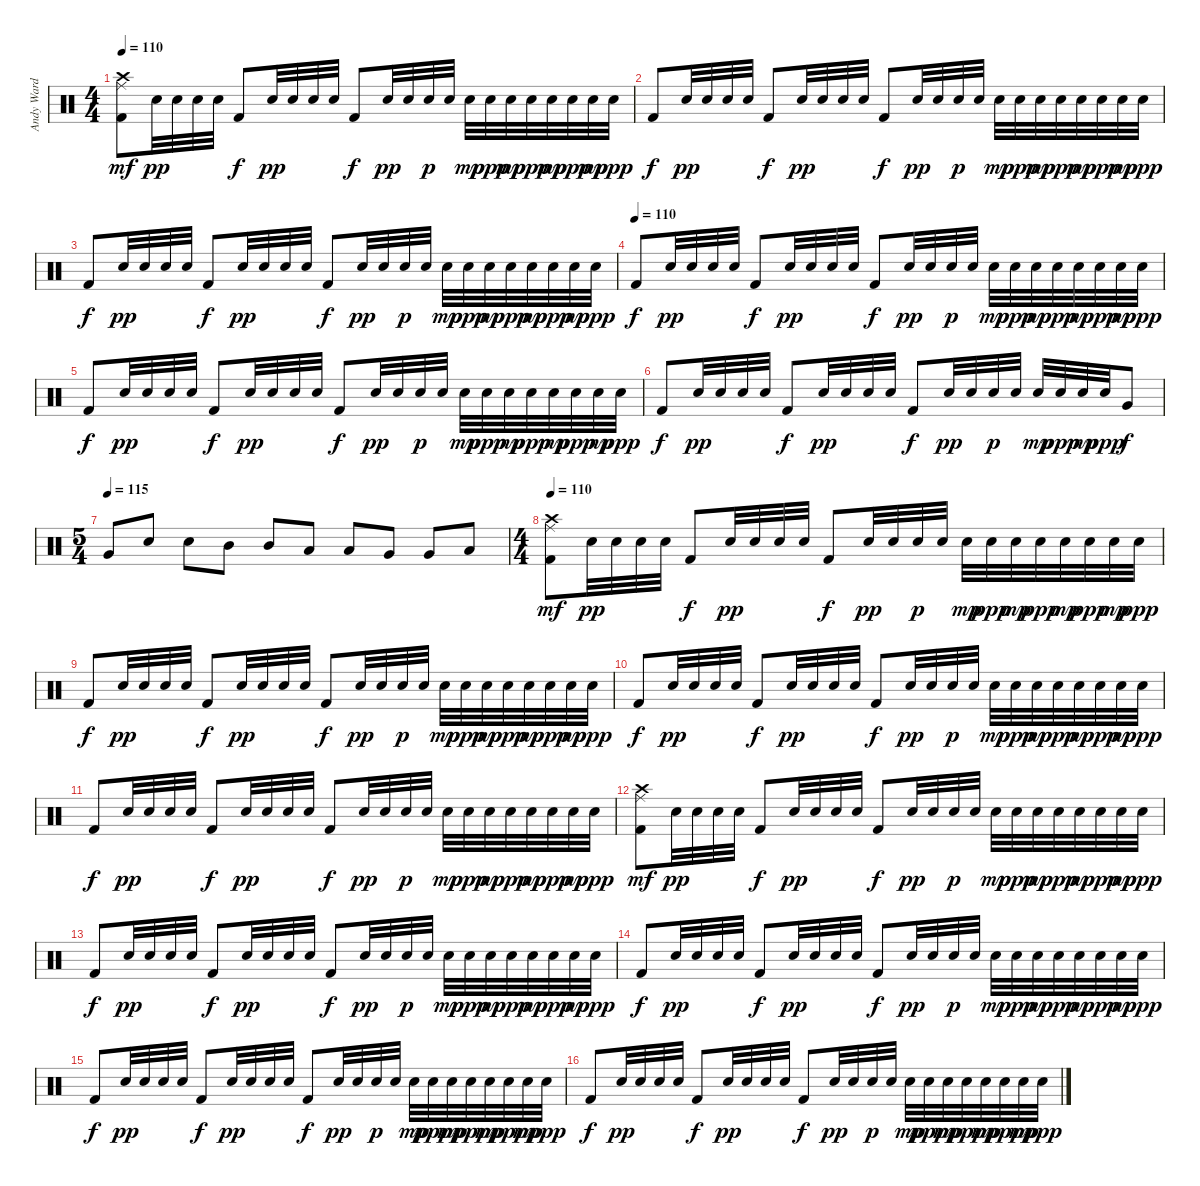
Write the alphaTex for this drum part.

\track ("Andy Ward - Drums" "Andy Ward ") {instrument percussion}
\staff {score}
\articulation defaults
\ts (4 4)
\tempo 110
\clef neutral
\ks c
("Ride (middle)" "Crash high (hit)" "Kick (hit) 2").8{dy mf} "Electric Snare (hit)".32{dy pp} "Electric Snare (hit)".32 "Electric Snare (hit)".32 "Electric Snare (hit)".32 "Kick (hit) 2".8{dy f} "Electric Snare (hit)".32{dy pp} "Electric Snare (hit)".32 "Electric Snare (hit)".32 "Electric Snare (hit)".32 "Kick (hit) 2".8{dy f} "Electric Snare (hit)".32{dy pp} "Electric Snare (hit)".32 "Electric Snare (hit)".32{dy p} "Electric Snare (hit)".32 "Electric Snare (hit)".32{dy mp} "Electric Snare (hit)".32{dy ppp} "Electric Snare (hit)".32{dy mp} "Electric Snare (hit)".32{dy ppp} "Electric Snare (hit)".32{dy mp} "Electric Snare (hit)".32{dy ppp} "Electric Snare (hit)".32{dy mp} "Electric Snare (hit)".32{dy ppp} |
"Kick (hit) 2".8{dy f} "Electric Snare (hit)".32{dy pp} "Electric Snare (hit)".32 "Electric Snare (hit)".32 "Electric Snare (hit)".32 "Kick (hit) 2".8{dy f} "Electric Snare (hit)".32{dy pp} "Electric Snare (hit)".32 "Electric Snare (hit)".32 "Electric Snare (hit)".32 "Kick (hit) 2".8{dy f} "Electric Snare (hit)".32{dy pp} "Electric Snare (hit)".32 "Electric Snare (hit)".32{dy p} "Electric Snare (hit)".32 "Electric Snare (hit)".32{dy mp} "Electric Snare (hit)".32{dy ppp} "Electric Snare (hit)".32{dy mp} "Electric Snare (hit)".32{dy ppp} "Electric Snare (hit)".32{dy mp} "Electric Snare (hit)".32{dy ppp} "Electric Snare (hit)".32{dy mp} "Electric Snare (hit)".32{dy ppp} |
"Kick (hit) 2".8{dy f} "Electric Snare (hit)".32{dy pp} "Electric Snare (hit)".32 "Electric Snare (hit)".32 "Electric Snare (hit)".32 "Kick (hit) 2".8{dy f} "Electric Snare (hit)".32{dy pp} "Electric Snare (hit)".32 "Electric Snare (hit)".32 "Electric Snare (hit)".32 "Kick (hit) 2".8{dy f} "Electric Snare (hit)".32{dy pp} "Electric Snare (hit)".32 "Electric Snare (hit)".32{dy p} "Electric Snare (hit)".32 "Electric Snare (hit)".32{dy mp} "Electric Snare (hit)".32{dy ppp} "Electric Snare (hit)".32{dy mp} "Electric Snare (hit)".32{dy ppp} "Electric Snare (hit)".32{dy mp} "Electric Snare (hit)".32{dy ppp} "Electric Snare (hit)".32{dy mp} "Electric Snare (hit)".32{dy ppp} |
\tempo (110)
"Kick (hit) 2".8{dy f} "Electric Snare (hit)".32{dy pp} "Electric Snare (hit)".32 "Electric Snare (hit)".32 "Electric Snare (hit)".32 "Kick (hit) 2".8{dy f} "Electric Snare (hit)".32{dy pp} "Electric Snare (hit)".32 "Electric Snare (hit)".32 "Electric Snare (hit)".32 "Kick (hit) 2".8{dy f} "Electric Snare (hit)".32{dy pp} "Electric Snare (hit)".32 "Electric Snare (hit)".32{dy p} "Electric Snare (hit)".32 "Electric Snare (hit)".32{dy mp} "Electric Snare (hit)".32{dy ppp} "Electric Snare (hit)".32{dy mp} "Electric Snare (hit)".32{dy ppp} "Electric Snare (hit)".32{dy mp} "Electric Snare (hit)".32{dy ppp} "Electric Snare (hit)".32{dy mp} "Electric Snare (hit)".32{dy ppp} |
"Kick (hit) 2".8{dy f} "Electric Snare (hit)".32{dy pp} "Electric Snare (hit)".32 "Electric Snare (hit)".32 "Electric Snare (hit)".32 "Kick (hit) 2".8{dy f} "Electric Snare (hit)".32{dy pp} "Electric Snare (hit)".32 "Electric Snare (hit)".32 "Electric Snare (hit)".32 "Kick (hit) 2".8{dy f} "Electric Snare (hit)".32{dy pp} "Electric Snare (hit)".32 "Electric Snare (hit)".32{dy p} "Electric Snare (hit)".32 "Electric Snare (hit)".32{dy mp} "Electric Snare (hit)".32{dy ppp} "Electric Snare (hit)".32{dy mp} "Electric Snare (hit)".32{dy ppp} "Electric Snare (hit)".32{dy mp} "Electric Snare (hit)".32{dy ppp} "Electric Snare (hit)".32{dy mp} "Electric Snare (hit)".32{dy ppp} |
"Kick (hit) 2".8{dy f} "Electric Snare (hit)".32{dy pp} "Electric Snare (hit)".32 "Electric Snare (hit)".32 "Electric Snare (hit)".32 "Kick (hit) 2".8{dy f} "Electric Snare (hit)".32{dy pp} "Electric Snare (hit)".32 "Electric Snare (hit)".32 "Electric Snare (hit)".32 "Kick (hit) 2".8{dy f} "Electric Snare (hit)".32{dy pp} "Electric Snare (hit)".32 "Electric Snare (hit)".32{dy p} "Electric Snare (hit)".32 "Electric Snare (hit)".32{dy mp} "Electric Snare (hit)".32{dy ppp} "Electric Snare (hit)".32{dy mp} "Electric Snare (hit)".32{dy ppp} "Very Low Tom (hit)".8{dy f} |
\ts (5 4)
\tempo (115)
"Very Low Tom (hit)".8 "Electric Snare (hit)".8 "Electric Snare (hit)".8 "Mid Tom (hit)".8 "Mid Tom (hit)".8 "Low Tom (hit)".8 "Low Tom (hit)".8 "Very Low Tom (hit)".8 "Very Low Tom (hit)".8 "Low Floor Tom (hit)".8 |
\ts (4 4)
\tempo 110
("Ride (middle)" "Crash high (hit)" "Kick (hit) 2").8{dy mf} "Electric Snare (hit)".32{dy pp} "Electric Snare (hit)".32 "Electric Snare (hit)".32 "Electric Snare (hit)".32 "Kick (hit) 2".8{dy f} "Electric Snare (hit)".32{dy pp} "Electric Snare (hit)".32 "Electric Snare (hit)".32 "Electric Snare (hit)".32 "Kick (hit) 2".8{dy f} "Electric Snare (hit)".32{dy pp} "Electric Snare (hit)".32 "Electric Snare (hit)".32{dy p} "Electric Snare (hit)".32 "Electric Snare (hit)".32{dy mp} "Electric Snare (hit)".32{dy ppp} "Electric Snare (hit)".32{dy mp} "Electric Snare (hit)".32{dy ppp} "Electric Snare (hit)".32{dy mp} "Electric Snare (hit)".32{dy ppp} "Electric Snare (hit)".32{dy mp} "Electric Snare (hit)".32{dy ppp} |
"Kick (hit) 2".8{dy f} "Electric Snare (hit)".32{dy pp} "Electric Snare (hit)".32 "Electric Snare (hit)".32 "Electric Snare (hit)".32 "Kick (hit) 2".8{dy f} "Electric Snare (hit)".32{dy pp} "Electric Snare (hit)".32 "Electric Snare (hit)".32 "Electric Snare (hit)".32 "Kick (hit) 2".8{dy f} "Electric Snare (hit)".32{dy pp} "Electric Snare (hit)".32 "Electric Snare (hit)".32{dy p} "Electric Snare (hit)".32 "Electric Snare (hit)".32{dy mp} "Electric Snare (hit)".32{dy ppp} "Electric Snare (hit)".32{dy mp} "Electric Snare (hit)".32{dy ppp} "Electric Snare (hit)".32{dy mp} "Electric Snare (hit)".32{dy ppp} "Electric Snare (hit)".32{dy mp} "Electric Snare (hit)".32{dy ppp} |
"Kick (hit) 2".8{dy f} "Electric Snare (hit)".32{dy pp} "Electric Snare (hit)".32 "Electric Snare (hit)".32 "Electric Snare (hit)".32 "Kick (hit) 2".8{dy f} "Electric Snare (hit)".32{dy pp} "Electric Snare (hit)".32 "Electric Snare (hit)".32 "Electric Snare (hit)".32 "Kick (hit) 2".8{dy f} "Electric Snare (hit)".32{dy pp} "Electric Snare (hit)".32 "Electric Snare (hit)".32{dy p} "Electric Snare (hit)".32 "Electric Snare (hit)".32{dy mp} "Electric Snare (hit)".32{dy ppp} "Electric Snare (hit)".32{dy mp} "Electric Snare (hit)".32{dy ppp} "Electric Snare (hit)".32{dy mp} "Electric Snare (hit)".32{dy ppp} "Electric Snare (hit)".32{dy mp} "Electric Snare (hit)".32{dy ppp} |
"Kick (hit) 2".8{dy f} "Electric Snare (hit)".32{dy pp} "Electric Snare (hit)".32 "Electric Snare (hit)".32 "Electric Snare (hit)".32 "Kick (hit) 2".8{dy f} "Electric Snare (hit)".32{dy pp} "Electric Snare (hit)".32 "Electric Snare (hit)".32 "Electric Snare (hit)".32 "Kick (hit) 2".8{dy f} "Electric Snare (hit)".32{dy pp} "Electric Snare (hit)".32 "Electric Snare (hit)".32{dy p} "Electric Snare (hit)".32 "Electric Snare (hit)".32{dy mp} "Electric Snare (hit)".32{dy ppp} "Electric Snare (hit)".32{dy mp} "Electric Snare (hit)".32{dy ppp} "Electric Snare (hit)".32{dy mp} "Electric Snare (hit)".32{dy ppp} "Electric Snare (hit)".32{dy mp} "Electric Snare (hit)".32{dy ppp} |
("Ride (middle)" "Crash high (hit)" "Kick (hit) 2").8{dy mf} "Electric Snare (hit)".32{dy pp} "Electric Snare (hit)".32 "Electric Snare (hit)".32 "Electric Snare (hit)".32 "Kick (hit) 2".8{dy f} "Electric Snare (hit)".32{dy pp} "Electric Snare (hit)".32 "Electric Snare (hit)".32 "Electric Snare (hit)".32 "Kick (hit) 2".8{dy f} "Electric Snare (hit)".32{dy pp} "Electric Snare (hit)".32 "Electric Snare (hit)".32{dy p} "Electric Snare (hit)".32 "Electric Snare (hit)".32{dy mp} "Electric Snare (hit)".32{dy ppp} "Electric Snare (hit)".32{dy mp} "Electric Snare (hit)".32{dy ppp} "Electric Snare (hit)".32{dy mp} "Electric Snare (hit)".32{dy ppp} "Electric Snare (hit)".32{dy mp} "Electric Snare (hit)".32{dy ppp} |
"Kick (hit) 2".8{dy f} "Electric Snare (hit)".32{dy pp} "Electric Snare (hit)".32 "Electric Snare (hit)".32 "Electric Snare (hit)".32 "Kick (hit) 2".8{dy f} "Electric Snare (hit)".32{dy pp} "Electric Snare (hit)".32 "Electric Snare (hit)".32 "Electric Snare (hit)".32 "Kick (hit) 2".8{dy f} "Electric Snare (hit)".32{dy pp} "Electric Snare (hit)".32 "Electric Snare (hit)".32{dy p} "Electric Snare (hit)".32 "Electric Snare (hit)".32{dy mp} "Electric Snare (hit)".32{dy ppp} "Electric Snare (hit)".32{dy mp} "Electric Snare (hit)".32{dy ppp} "Electric Snare (hit)".32{dy mp} "Electric Snare (hit)".32{dy ppp} "Electric Snare (hit)".32{dy mp} "Electric Snare (hit)".32{dy ppp} |
"Kick (hit) 2".8{dy f} "Electric Snare (hit)".32{dy pp} "Electric Snare (hit)".32 "Electric Snare (hit)".32 "Electric Snare (hit)".32 "Kick (hit) 2".8{dy f} "Electric Snare (hit)".32{dy pp} "Electric Snare (hit)".32 "Electric Snare (hit)".32 "Electric Snare (hit)".32 "Kick (hit) 2".8{dy f} "Electric Snare (hit)".32{dy pp} "Electric Snare (hit)".32 "Electric Snare (hit)".32{dy p} "Electric Snare (hit)".32 "Electric Snare (hit)".32{dy mp} "Electric Snare (hit)".32{dy ppp} "Electric Snare (hit)".32{dy mp} "Electric Snare (hit)".32{dy ppp} "Electric Snare (hit)".32{dy mp} "Electric Snare (hit)".32{dy ppp} "Electric Snare (hit)".32{dy mp} "Electric Snare (hit)".32{dy ppp} |
"Kick (hit) 2".8{dy f} "Electric Snare (hit)".32{dy pp} "Electric Snare (hit)".32 "Electric Snare (hit)".32 "Electric Snare (hit)".32 "Kick (hit) 2".8{dy f} "Electric Snare (hit)".32{dy pp} "Electric Snare (hit)".32 "Electric Snare (hit)".32 "Electric Snare (hit)".32 "Kick (hit) 2".8{dy f} "Electric Snare (hit)".32{dy pp} "Electric Snare (hit)".32 "Electric Snare (hit)".32{dy p} "Electric Snare (hit)".32 "Electric Snare (hit)".32{dy mp} "Electric Snare (hit)".32{dy ppp} "Electric Snare (hit)".32{dy mp} "Electric Snare (hit)".32{dy ppp} "Electric Snare (hit)".32{dy mp} "Electric Snare (hit)".32{dy ppp} "Electric Snare (hit)".32{dy mp} "Electric Snare (hit)".32{dy ppp} |
"Kick (hit) 2".8{dy f} "Electric Snare (hit)".32{dy pp} "Electric Snare (hit)".32 "Electric Snare (hit)".32 "Electric Snare (hit)".32 "Kick (hit) 2".8{dy f} "Electric Snare (hit)".32{dy pp} "Electric Snare (hit)".32 "Electric Snare (hit)".32 "Electric Snare (hit)".32 "Kick (hit) 2".8{dy f} "Electric Snare (hit)".32{dy pp} "Electric Snare (hit)".32 "Electric Snare (hit)".32{dy p} "Electric Snare (hit)".32 "Electric Snare (hit)".32{dy mp} "Electric Snare (hit)".32{dy ppp} "Electric Snare (hit)".32{dy mp} "Electric Snare (hit)".32{dy ppp} "Electric Snare (hit)".32{dy mp} "Electric Snare (hit)".32{dy ppp} "Electric Snare (hit)".32{dy mp} "Electric Snare (hit)".32{dy ppp}
